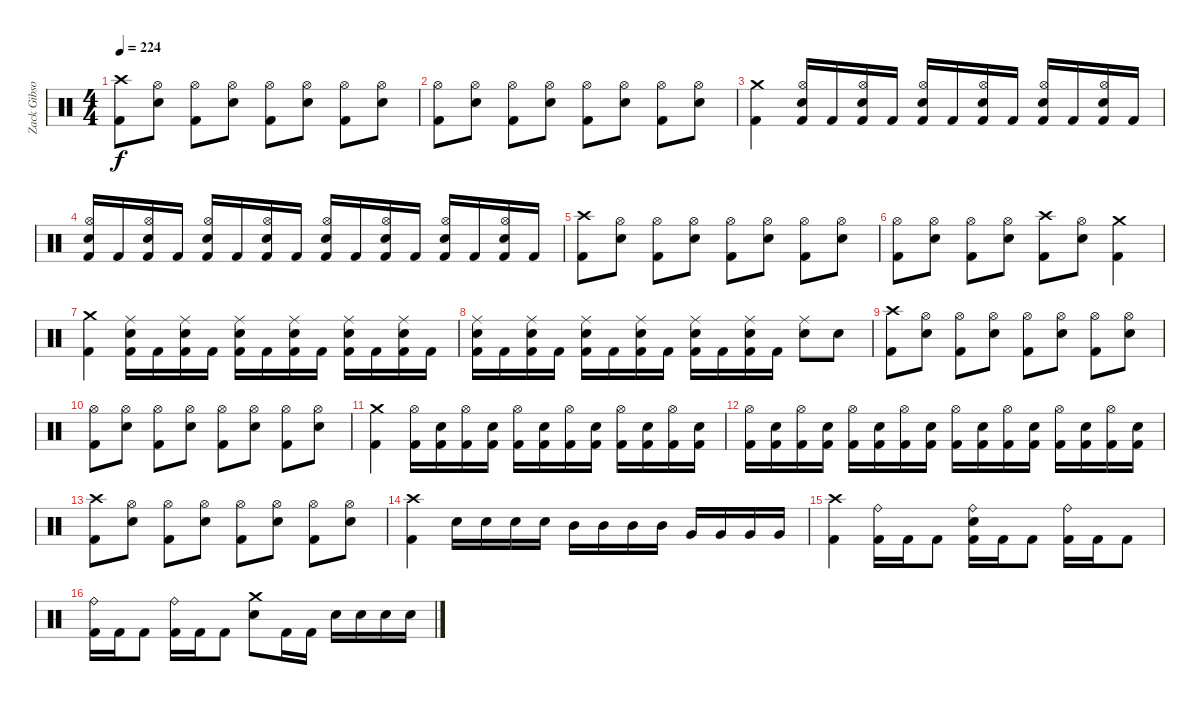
\track ("Zack Gibson" "Zack Gibso") {instrument percussion}
\staff {score}
\articulation defaults
\ts (4 4)
\tempo 224
\clef neutral
\ks c
("Crash high (hit)" "Kick (hit) 2").8{dy f} ("Hi-Hat (open)" "Snare (hit) 2").8 ("Hi-Hat (open)" "Kick (hit) 2").8 ("Hi-Hat (open)" "Snare (hit) 2").8 ("Hi-Hat (open)" "Kick (hit) 2").8 ("Hi-Hat (open)" "Snare (hit) 2").8 ("Hi-Hat (open)" "Kick (hit) 2").8 ("Hi-Hat (open)" "Snare (hit) 2").8 |
("Hi-Hat (open)" "Kick (hit) 2").8 ("Hi-Hat (open)" "Snare (hit) 2").8 ("Hi-Hat (open)" "Kick (hit) 2").8 ("Hi-Hat (open)" "Snare (hit) 2").8 ("Hi-Hat (open)" "Kick (hit) 2").8 ("Hi-Hat (open)" "Snare (hit) 2").8 ("Hi-Hat (open)" "Kick (hit) 2").8 ("Hi-Hat (open)" "Snare (hit) 2").8 |
("Crash medium (hit)" "Kick (hit) 2").4 ("Hi-Hat (open)" "Kick (hit) 2" "Snare (hit) 2").16 "Kick (hit) 2".16 ("Hi-Hat (open)" "Kick (hit) 2" "Snare (hit) 2").16 "Kick (hit) 2".16 ("Hi-Hat (open)" "Kick (hit) 2" "Snare (hit) 2").16 "Kick (hit) 2".16 ("Hi-Hat (open)" "Kick (hit) 2" "Snare (hit) 2").16 "Kick (hit) 2".16 ("Hi-Hat (open)" "Kick (hit) 2" "Snare (hit) 2").16 "Kick (hit) 2".16 ("Hi-Hat (open)" "Kick (hit) 2" "Snare (hit) 2").16 "Kick (hit) 2".16 |
("Hi-Hat (open)" "Kick (hit) 2" "Snare (hit) 2").16 "Kick (hit) 2".16 ("Hi-Hat (open)" "Kick (hit) 2" "Snare (hit) 2").16 "Kick (hit) 2".16 ("Hi-Hat (open)" "Kick (hit) 2" "Snare (hit) 2").16 "Kick (hit) 2".16 ("Hi-Hat (open)" "Kick (hit) 2" "Snare (hit) 2").16 "Kick (hit) 2".16 ("Hi-Hat (open)" "Kick (hit) 2" "Snare (hit) 2").16 "Kick (hit) 2".16 ("Hi-Hat (open)" "Kick (hit) 2" "Snare (hit) 2").16 "Kick (hit) 2".16 ("Hi-Hat (open)" "Kick (hit) 2" "Snare (hit) 2").16 "Kick (hit) 2".16 ("Hi-Hat (open)" "Kick (hit) 2" "Snare (hit) 2").16 "Kick (hit) 2".16 |
("Crash high (hit)" "Kick (hit) 2").8 ("Hi-Hat (open)" "Snare (hit) 2").8 ("Hi-Hat (open)" "Kick (hit) 2").8 ("Hi-Hat (open)" "Snare (hit) 2").8 ("Hi-Hat (open)" "Kick (hit) 2").8 ("Hi-Hat (open)" "Snare (hit) 2").8 ("Hi-Hat (open)" "Kick (hit) 2").8 ("Hi-Hat (open)" "Snare (hit) 2").8 |
("Hi-Hat (open)" "Kick (hit) 2").8 ("Hi-Hat (open)" "Snare (hit) 2").8 ("Hi-Hat (open)" "Kick (hit) 2").8 ("Hi-Hat (open)" "Snare (hit) 2").8 ("Crash high (hit)" "Kick (hit) 2").8 ("Hi-Hat (open)" "Snare (hit) 2").8 ("Crash medium (hit)" "Kick (hit) 2").4 |
("Crash medium (hit)" "Kick (hit) 2").4 ("Ride (middle)" "Kick (hit) 2" "Snare (hit) 2").16 "Kick (hit) 2".16 ("Ride (middle)" "Kick (hit) 2" "Snare (hit) 2").16 "Kick (hit) 2".16 ("Ride (middle)" "Kick (hit) 2" "Snare (hit) 2").16 "Kick (hit) 2".16 ("Ride (middle)" "Kick (hit) 2" "Snare (hit) 2").16 "Kick (hit) 2".16 ("Ride (middle)" "Kick (hit) 2" "Snare (hit) 2").16 "Kick (hit) 2".16 ("Ride (middle)" "Kick (hit) 2" "Snare (hit) 2").16 "Kick (hit) 2".16 |
("Ride (middle)" "Kick (hit) 2" "Snare (hit) 2").16 "Kick (hit) 2".16 ("Ride (middle)" "Kick (hit) 2" "Snare (hit) 2").16 "Kick (hit) 2".16 ("Ride (middle)" "Kick (hit) 2" "Snare (hit) 2").16 "Kick (hit) 2".16 ("Ride (middle)" "Kick (hit) 2" "Snare (hit) 2").16 "Kick (hit) 2".16 ("Ride (middle)" "Kick (hit) 2" "Snare (hit) 2").16 "Kick (hit) 2".16 ("Ride (middle)" "Kick (hit) 2" "Snare (hit) 2").16 "Kick (hit) 2".16 ("Ride (middle)" "Snare (hit) 2").8 "Snare (hit) 2".8 |
("Crash high (hit)" "Kick (hit) 2").8 ("Hi-Hat (open)" "Snare (hit) 2").8 ("Hi-Hat (open)" "Kick (hit) 2").8 ("Hi-Hat (open)" "Snare (hit) 2").8 ("Hi-Hat (open)" "Kick (hit) 2").8 ("Hi-Hat (open)" "Snare (hit) 2").8 ("Hi-Hat (open)" "Kick (hit) 2").8 ("Hi-Hat (open)" "Snare (hit) 2").8 |
("Hi-Hat (open)" "Kick (hit) 2").8 ("Hi-Hat (open)" "Snare (hit) 2").8 ("Hi-Hat (open)" "Kick (hit) 2").8 ("Hi-Hat (open)" "Snare (hit) 2").8 ("Hi-Hat (open)" "Kick (hit) 2").8 ("Hi-Hat (open)" "Snare (hit) 2").8 ("Hi-Hat (open)" "Kick (hit) 2").8 ("Hi-Hat (open)" "Snare (hit) 2").8 |
("Crash medium (hit)" "Kick (hit) 2").4 ("Hi-Hat (open)" "Kick (hit) 2").16 ("Snare (hit) 2" "Kick (hit) 2").16 ("Hi-Hat (open)" "Kick (hit) 2").16 ("Snare (hit) 2" "Kick (hit) 2").16 ("Hi-Hat (open)" "Kick (hit) 2").16 ("Snare (hit) 2" "Kick (hit) 2").16 ("Hi-Hat (open)" "Kick (hit) 2").16 ("Snare (hit) 2" "Kick (hit) 2").16 ("Hi-Hat (open)" "Kick (hit) 2").16 ("Snare (hit) 2" "Kick (hit) 2").16 ("Hi-Hat (open)" "Kick (hit) 2").16 ("Snare (hit) 2" "Kick (hit) 2").16 |
("Hi-Hat (open)" "Kick (hit) 2").16 ("Snare (hit) 2" "Kick (hit) 2").16 ("Hi-Hat (open)" "Kick (hit) 2").16 ("Snare (hit) 2" "Kick (hit) 2").16 ("Hi-Hat (open)" "Kick (hit) 2").16 ("Snare (hit) 2" "Kick (hit) 2").16 ("Hi-Hat (open)" "Kick (hit) 2").16 ("Snare (hit) 2" "Kick (hit) 2").16 ("Hi-Hat (open)" "Kick (hit) 2").16 ("Snare (hit) 2" "Kick (hit) 2").16 ("Hi-Hat (open)" "Kick (hit) 2").16 ("Snare (hit) 2" "Kick (hit) 2").16 ("Hi-Hat (open)" "Kick (hit) 2").16 ("Snare (hit) 2" "Kick (hit) 2").16 ("Hi-Hat (open)" "Kick (hit) 2").16 ("Snare (hit) 2" "Kick (hit) 2").16 |
("Crash high (hit)" "Kick (hit) 2").8 ("Hi-Hat (open)" "Snare (hit) 2").8 ("Hi-Hat (open)" "Kick (hit) 2").8 ("Hi-Hat (open)" "Snare (hit) 2").8 ("Hi-Hat (open)" "Kick (hit) 2").8 ("Hi-Hat (open)" "Snare (hit) 2").8 ("Hi-Hat (open)" "Kick (hit) 2").8 ("Hi-Hat (open)" "Snare (hit) 2").8 |
("Crash high (hit)" "Kick (hit) 2").4 "Snare (hit) 2".16 "Snare (hit) 2".16 "Snare (hit) 2".16 "Snare (hit) 2".16 "Mid Tom (hit)".16 "Mid Tom (hit)".16 "Mid Tom (hit)".16 "Mid Tom (hit)".16 "Very Low Tom (hit)".16 "Very Low Tom (hit)".16 "Very Low Tom (hit)".16 "Very Low Tom (hit)".16 |
("Crash high (hit)" "Kick (hit) 2").4 ("Ride (bell)" "Kick (hit) 2").16 "Kick (hit) 2".16 "Kick (hit) 2".8 ("Snare (hit) 2" "Ride (bell)" "Kick (hit) 2").16 "Kick (hit) 2".16 "Kick (hit) 2".8 ("Ride (bell)" "Kick (hit) 2").16 "Kick (hit) 2".16 "Kick (hit) 2".8 |
("Ride (bell)" "Kick (hit) 2").16 "Kick (hit) 2".16 "Kick (hit) 2".8 ("Ride (bell)" "Kick (hit) 2").16 "Kick (hit) 2".16 "Kick (hit) 2".8 ("Crash medium (hit)" "Snare (hit) 2").8 "Kick (hit) 2".16 "Kick (hit) 2".16 "Snare (hit) 2".16 "Snare (hit) 2".16 "Snare (hit) 2".16 "Snare (hit) 2".16
